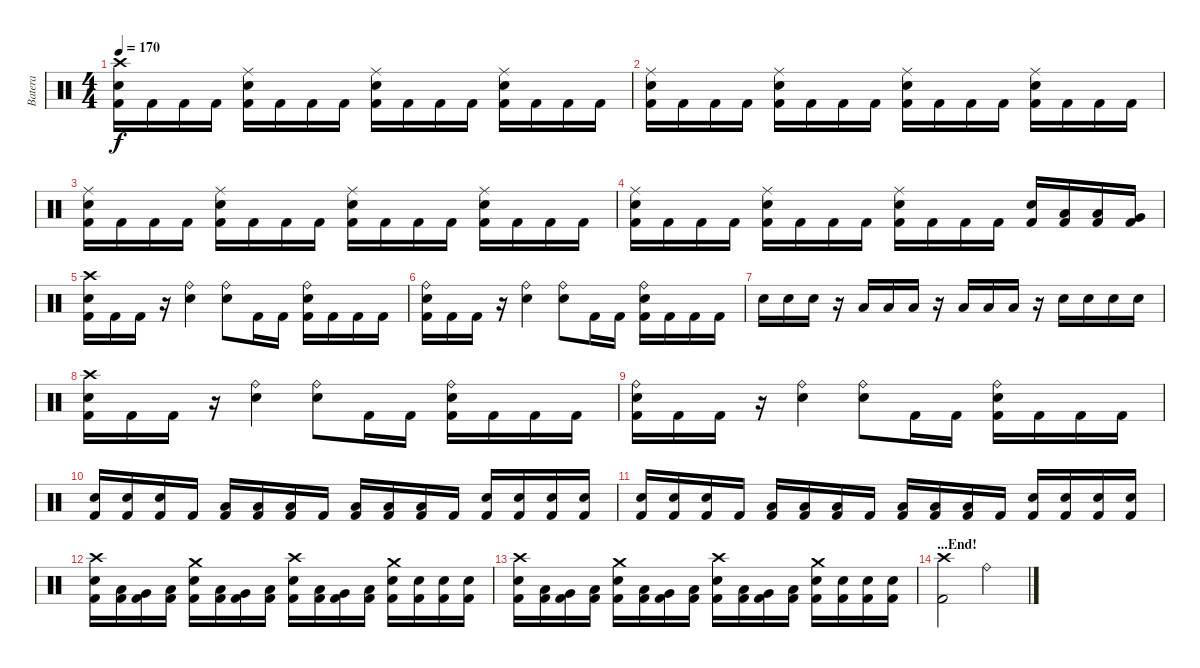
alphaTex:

\track ("Batera" "Batera") {instrument percussion}
\staff {score}
\articulation defaults
\ts (4 4)
\tempo 170
\clef neutral
\ks c
("Crash high (hit)" "Electric Snare (hit)" "Kick (hit) 2").16{dy f} "Kick (hit) 2".16 "Kick (hit) 2".16 "Kick (hit) 2".16 ("Ride (middle)" "Electric Snare (hit)" "Kick (hit) 2").16 "Kick (hit) 2".16 "Kick (hit) 2".16 "Kick (hit) 2".16 ("Ride (middle)" "Electric Snare (hit)" "Kick (hit) 2").16 "Kick (hit) 2".16 "Kick (hit) 2".16 "Kick (hit) 2".16 ("Ride (middle)" "Electric Snare (hit)" "Kick (hit) 2").16 "Kick (hit) 2".16 "Kick (hit) 2".16 "Kick (hit) 2".16 |
("Ride (middle)" "Electric Snare (hit)" "Kick (hit) 2").16 "Kick (hit) 2".16 "Kick (hit) 2".16 "Kick (hit) 2".16 ("Ride (middle)" "Electric Snare (hit)" "Kick (hit) 2").16 "Kick (hit) 2".16 "Kick (hit) 2".16 "Kick (hit) 2".16 ("Ride (middle)" "Electric Snare (hit)" "Kick (hit) 2").16 "Kick (hit) 2".16 "Kick (hit) 2".16 "Kick (hit) 2".16 ("Ride (middle)" "Electric Snare (hit)" "Kick (hit) 2").16 "Kick (hit) 2".16 "Kick (hit) 2".16 "Kick (hit) 2".16 |
("Ride (middle)" "Electric Snare (hit)" "Kick (hit) 2").16 "Kick (hit) 2".16 "Kick (hit) 2".16 "Kick (hit) 2".16 ("Ride (middle)" "Electric Snare (hit)" "Kick (hit) 2").16 "Kick (hit) 2".16 "Kick (hit) 2".16 "Kick (hit) 2".16 ("Ride (middle)" "Electric Snare (hit)" "Kick (hit) 2").16 "Kick (hit) 2".16 "Kick (hit) 2".16 "Kick (hit) 2".16 ("Ride (middle)" "Electric Snare (hit)" "Kick (hit) 2").16 "Kick (hit) 2".16 "Kick (hit) 2".16 "Kick (hit) 2".16 |
("Ride (middle)" "Electric Snare (hit)" "Kick (hit) 2").16 "Kick (hit) 2".16 "Kick (hit) 2".16 "Kick (hit) 2".16 ("Ride (middle)" "Electric Snare (hit)" "Kick (hit) 2").16 "Kick (hit) 2".16 "Kick (hit) 2".16 "Kick (hit) 2".16 ("Ride (middle)" "Electric Snare (hit)" "Kick (hit) 2").16 "Kick (hit) 2".16 "Kick (hit) 2".16 "Kick (hit) 2".16 ("Electric Snare (hit)" "Kick (hit) 2").16 ("Low Floor Tom (hit)" "Kick (hit) 2").16 ("Low Tom (hit)" "Kick (hit) 2").16 ("Very Low Tom (hit)" "Kick (hit) 2").16 |
("Crash high (hit)" "Electric Snare (hit)" "Kick (hit) 2").16 "Kick (hit) 2".16 "Kick (hit) 2".16 r.16 ("Ride (bell)" "Electric Snare (hit)").4 ("Ride (bell)" "Electric Snare (hit)").8 "Kick (hit) 2".16 "Kick (hit) 2".16 ("Ride (bell)" "Electric Snare (hit)" "Kick (hit) 2").16 "Kick (hit) 2".16 "Kick (hit) 2".16 "Kick (hit) 2".16 |
("Ride (bell)" "Electric Snare (hit)" "Kick (hit) 2").16 "Kick (hit) 2".16 "Kick (hit) 2".16 r.16 ("Ride (bell)" "Electric Snare (hit)").4 ("Ride (bell)" "Electric Snare (hit)").8 "Kick (hit) 2".16 "Kick (hit) 2".16 ("Ride (bell)" "Electric Snare (hit)" "Kick (hit) 2").16 "Kick (hit) 2".16 "Kick (hit) 2".16 "Kick (hit) 2".16 |
"Electric Snare (hit)".16 "Electric Snare (hit)".16 "Electric Snare (hit)".16 r.16 "Low Floor Tom (hit)".16 "Low Floor Tom (hit)".16 "Low Floor Tom (hit)".16 r.16 "Low Tom (hit)".16 "Low Tom (hit)".16 "Low Tom (hit)".16 r.16 "Electric Snare (hit)".16 "Electric Snare (hit)".16 "Electric Snare (hit)".16 "Electric Snare (hit)".16 |
("Crash high (hit)" "Electric Snare (hit)" "Kick (hit) 2").16 "Kick (hit) 2".16 "Kick (hit) 2".16 r.16 ("Ride (bell)" "Electric Snare (hit)").4 ("Ride (bell)" "Electric Snare (hit)").8 "Kick (hit) 2".16 "Kick (hit) 2".16 ("Ride (bell)" "Electric Snare (hit)" "Kick (hit) 2").16 "Kick (hit) 2".16 "Kick (hit) 2".16 "Kick (hit) 2".16 |
("Ride (bell)" "Electric Snare (hit)" "Kick (hit) 2").16 "Kick (hit) 2".16 "Kick (hit) 2".16 r.16 ("Ride (bell)" "Electric Snare (hit)").4 ("Ride (bell)" "Electric Snare (hit)").8 "Kick (hit) 2".16 "Kick (hit) 2".16 ("Ride (bell)" "Electric Snare (hit)" "Kick (hit) 2").16 "Kick (hit) 2".16 "Kick (hit) 2".16 "Kick (hit) 2".16 |
("Electric Snare (hit)" "Kick (hit) 2").16 ("Electric Snare (hit)" "Kick (hit) 2").16 ("Electric Snare (hit)" "Kick (hit) 2").16 "Kick (hit) 2".16 ("Low Floor Tom (hit)" "Kick (hit) 2").16 ("Low Floor Tom (hit)" "Kick (hit) 2").16 ("Low Floor Tom (hit)" "Kick (hit) 2").16 "Kick (hit) 2".16 ("Low Tom (hit)" "Kick (hit) 2").16 ("Low Tom (hit)" "Kick (hit) 2").16 ("Low Tom (hit)" "Kick (hit) 2").16 "Kick (hit) 2".16 ("Electric Snare (hit)" "Kick (hit) 2").16 ("Electric Snare (hit)" "Kick (hit) 2").16 ("Electric Snare (hit)" "Kick (hit) 2").16 ("Electric Snare (hit)" "Kick (hit) 2").16 |
("Electric Snare (hit)" "Kick (hit) 2").16 ("Electric Snare (hit)" "Kick (hit) 2").16 ("Electric Snare (hit)" "Kick (hit) 2").16 "Kick (hit) 2".16 ("Low Floor Tom (hit)" "Kick (hit) 2").16 ("Low Floor Tom (hit)" "Kick (hit) 2").16 ("Low Floor Tom (hit)" "Kick (hit) 2").16 "Kick (hit) 2".16 ("Low Tom (hit)" "Kick (hit) 2").16 ("Low Tom (hit)" "Kick (hit) 2").16 ("Low Tom (hit)" "Kick (hit) 2").16 "Kick (hit) 2".16 ("Electric Snare (hit)" "Kick (hit) 2").16 ("Electric Snare (hit)" "Kick (hit) 2").16 ("Electric Snare (hit)" "Kick (hit) 2").16 ("Electric Snare (hit)" "Kick (hit) 2").16 |
("Crash high (hit)" "Electric Snare (hit)" "Kick (hit) 2").16 ("Low Floor Tom (hit)" "Kick (hit) 2").16 ("Very Low Tom (hit)" "Kick (hit) 2").16 ("Low Tom (hit)" "Kick (hit) 2").16 ("Crash medium (hit)" "Electric Snare (hit)" "Kick (hit) 2").16 ("Low Floor Tom (hit)" "Kick (hit) 2").16 ("Very Low Tom (hit)" "Kick (hit) 2").16 ("Low Tom (hit)" "Kick (hit) 2").16 ("Crash high (hit)" "Electric Snare (hit)" "Kick (hit) 2").16 ("Low Floor Tom (hit)" "Kick (hit) 2").16 ("Very Low Tom (hit)" "Kick (hit) 2").16 ("Low Tom (hit)" "Kick (hit) 2").16 ("Crash medium (hit)" "Electric Snare (hit)" "Kick (hit) 2").16 ("Electric Snare (hit)" "Kick (hit) 2").16 ("Electric Snare (hit)" "Kick (hit) 2").16 ("Electric Snare (hit)" "Kick (hit) 2").16 |
("Crash high (hit)" "Electric Snare (hit)" "Kick (hit) 2").16 ("Low Floor Tom (hit)" "Kick (hit) 2").16 ("Very Low Tom (hit)" "Kick (hit) 2").16 ("Low Tom (hit)" "Kick (hit) 2").16 ("Crash medium (hit)" "Electric Snare (hit)" "Kick (hit) 2").16 ("Low Floor Tom (hit)" "Kick (hit) 2").16 ("Very Low Tom (hit)" "Kick (hit) 2").16 ("Low Tom (hit)" "Kick (hit) 2").16 ("Crash high (hit)" "Electric Snare (hit)" "Kick (hit) 2").16 ("Low Floor Tom (hit)" "Kick (hit) 2").16 ("Very Low Tom (hit)" "Kick (hit) 2").16 ("Low Tom (hit)" "Kick (hit) 2").16 ("Crash medium (hit)" "Electric Snare (hit)" "Kick (hit) 2").16 ("Electric Snare (hit)" "Kick (hit) 2").16 ("Electric Snare (hit)" "Kick (hit) 2").16 ("Electric Snare (hit)" "Kick (hit) 2").16 |
\section ("" "...End!")
("Crash high (hit)" "Kick (hit) 2").2 "Ride (bell)".2
